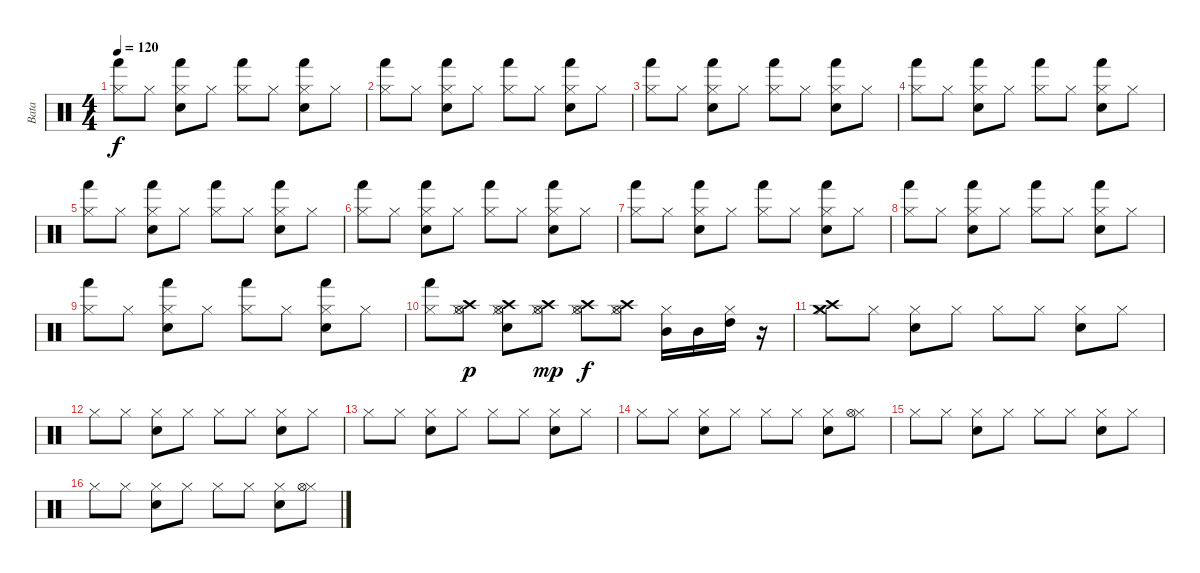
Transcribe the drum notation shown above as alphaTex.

\track ("Bata" "Bata") {instrument percussion}
\staff {score}
\articulation defaults
\ts (4 4)
\tempo 120
\clef neutral
\ks c
("Hi-Hat (closed)" "Hand (hit)").8{dy f} "Hi-Hat (closed)".8 ("Hi-Hat (closed)" "Electric Snare (hit)" "Hand (hit)").8 "Hi-Hat (closed)".8 ("Hi-Hat (closed)" "Hand (hit)").8 "Hi-Hat (closed)".8 ("Hi-Hat (closed)" "Electric Snare (hit)" "Hand (hit)").8 "Hi-Hat (closed)".8 |
("Hi-Hat (closed)" "Hand (hit)").8 "Hi-Hat (closed)".8 ("Hi-Hat (closed)" "Electric Snare (hit)" "Hand (hit)").8 "Hi-Hat (closed)".8 ("Hi-Hat (closed)" "Hand (hit)").8 "Hi-Hat (closed)".8 ("Hi-Hat (closed)" "Electric Snare (hit)" "Hand (hit)").8 "Hi-Hat (closed)".8 |
("Hi-Hat (closed)" "Hand (hit)").8 "Hi-Hat (closed)".8 ("Hi-Hat (closed)" "Electric Snare (hit)" "Hand (hit)").8 "Hi-Hat (closed)".8 ("Hi-Hat (closed)" "Hand (hit)").8 "Hi-Hat (closed)".8 ("Hi-Hat (closed)" "Electric Snare (hit)" "Hand (hit)").8 "Hi-Hat (closed)".8 |
("Hi-Hat (closed)" "Hand (hit)").8 "Hi-Hat (closed)".8 ("Hi-Hat (closed)" "Electric Snare (hit)" "Hand (hit)").8 "Hi-Hat (closed)".8 ("Hi-Hat (closed)" "Hand (hit)").8 "Hi-Hat (closed)".8 ("Hi-Hat (closed)" "Electric Snare (hit)" "Hand (hit)").8 "Hi-Hat (closed)".8 |
("Hi-Hat (closed)" "Hand (hit)").8 "Hi-Hat (closed)".8 ("Hi-Hat (closed)" "Electric Snare (hit)" "Hand (hit)").8 "Hi-Hat (closed)".8 ("Hi-Hat (closed)" "Hand (hit)").8 "Hi-Hat (closed)".8 ("Hi-Hat (closed)" "Electric Snare (hit)" "Hand (hit)").8 "Hi-Hat (closed)".8 |
("Hi-Hat (closed)" "Hand (hit)").8 "Hi-Hat (closed)".8 ("Hi-Hat (closed)" "Electric Snare (hit)" "Hand (hit)").8 "Hi-Hat (closed)".8 ("Hi-Hat (closed)" "Hand (hit)").8 "Hi-Hat (closed)".8 ("Hi-Hat (closed)" "Electric Snare (hit)" "Hand (hit)").8 "Hi-Hat (closed)".8 |
("Hi-Hat (closed)" "Hand (hit)").8 "Hi-Hat (closed)".8 ("Hi-Hat (closed)" "Electric Snare (hit)" "Hand (hit)").8 "Hi-Hat (closed)".8 ("Hi-Hat (closed)" "Hand (hit)").8 "Hi-Hat (closed)".8 ("Hi-Hat (closed)" "Electric Snare (hit)" "Hand (hit)").8 "Hi-Hat (closed)".8 |
("Hi-Hat (closed)" "Hand (hit)").8 "Hi-Hat (closed)".8 ("Hi-Hat (closed)" "Electric Snare (hit)" "Hand (hit)").8 "Hi-Hat (closed)".8 ("Hi-Hat (closed)" "Hand (hit)").8 "Hi-Hat (closed)".8 ("Hi-Hat (closed)" "Electric Snare (hit)" "Hand (hit)").8 "Hi-Hat (closed)".8 |
("Hi-Hat (closed)" "Hand (hit)").8 "Hi-Hat (closed)".8 ("Hi-Hat (closed)" "Electric Snare (hit)" "Hand (hit)").8 "Hi-Hat (closed)".8 ("Hi-Hat (closed)" "Hand (hit)").8 "Hi-Hat (closed)".8 ("Hi-Hat (closed)" "Electric Snare (hit)" "Hand (hit)").8 "Hi-Hat (closed)".8 |
("Hi-Hat (closed)" "Hand (hit)").8 ("Hi-Hat (closed)" "Hi-Hat (open)" "Crash high (hit)").8{dy p} ("Hi-Hat (closed)" "Electric Snare (hit)" "Hi-Hat (open)" "Crash high (hit)").8 ("Hi-Hat (closed)" "Hi-Hat (open)" "Crash high (hit)").8{dy mp} ("Hi-Hat (closed)" "Hi-Hat (open)" "Crash high (hit)").8{dy f} ("Hi-Hat (closed)" "Hi-Hat (open)" "Crash high (hit)").8 ("Hi-Hat (closed)" "Mid Tom (hit)").16 "Mid Tom (hit)".16 ("Hi-Hat (closed)" "High Tom (hit)").16 r.16 |
("Hi-Hat (closed)" "Crash high (hit)" "Crash medium (hit)").8 "Hi-Hat (closed)".8 ("Hi-Hat (closed)" "Electric Snare (hit)").8 "Hi-Hat (closed)".8 "Hi-Hat (closed)".8 "Hi-Hat (closed)".8 ("Hi-Hat (closed)" "Electric Snare (hit)").8 "Hi-Hat (closed)".8 |
"Hi-Hat (closed)".8 "Hi-Hat (closed)".8 ("Hi-Hat (closed)" "Electric Snare (hit)").8 "Hi-Hat (closed)".8 "Hi-Hat (closed)".8 "Hi-Hat (closed)".8 ("Hi-Hat (closed)" "Electric Snare (hit)").8 "Hi-Hat (closed)".8 |
"Hi-Hat (closed)".8 "Hi-Hat (closed)".8 ("Hi-Hat (closed)" "Electric Snare (hit)").8 "Hi-Hat (closed)".8 "Hi-Hat (closed)".8 "Hi-Hat (closed)".8 ("Hi-Hat (closed)" "Electric Snare (hit)").8 "Hi-Hat (closed)".8 |
"Hi-Hat (closed)".8 "Hi-Hat (closed)".8 ("Hi-Hat (closed)" "Electric Snare (hit)").8 "Hi-Hat (closed)".8 "Hi-Hat (closed)".8 "Hi-Hat (closed)".8 ("Hi-Hat (closed)" "Electric Snare (hit)").8 ("Hi-Hat (closed)" "Hi-Hat (open)").8 |
"Hi-Hat (closed)".8 "Hi-Hat (closed)".8 ("Hi-Hat (closed)" "Electric Snare (hit)").8 "Hi-Hat (closed)".8 "Hi-Hat (closed)".8 "Hi-Hat (closed)".8 ("Hi-Hat (closed)" "Electric Snare (hit)").8 "Hi-Hat (closed)".8 |
"Hi-Hat (closed)".8 "Hi-Hat (closed)".8 ("Hi-Hat (closed)" "Electric Snare (hit)").8 "Hi-Hat (closed)".8 "Hi-Hat (closed)".8 "Hi-Hat (closed)".8 ("Hi-Hat (closed)" "Electric Snare (hit)").8 ("Hi-Hat (closed)" "Hi-Hat (open)").8
